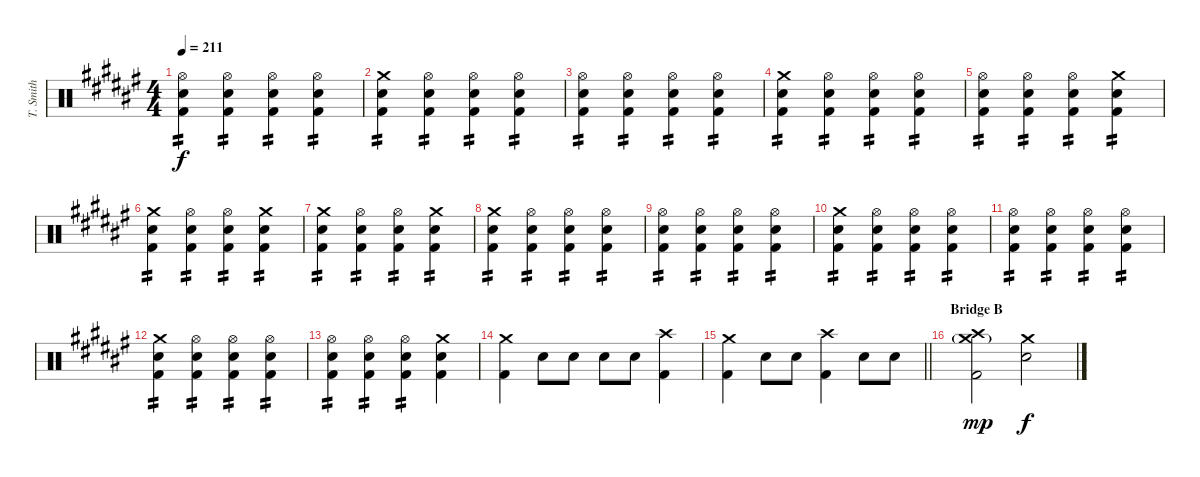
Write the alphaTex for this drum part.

\track ("T. Smith" "T. Smith") {instrument percussion}
\staff {score}
\articulation defaults
\ts (4 4)
\tempo 211
\clef neutral
\ks d#minor
("Hi-Hat (open)" "Electric Snare (hit)" "Kick (hit) 2").4{tp 2 dy f} ("Hi-Hat (open)" "Electric Snare (hit)" "Kick (hit) 2").4{tp 2} ("Hi-Hat (open)" "Electric Snare (hit)" "Kick (hit) 2").4{tp 2} ("Hi-Hat (open)" "Electric Snare (hit)" "Kick (hit) 2").4{tp 2} |
("Crash medium (hit)" "Electric Snare (hit)" "Kick (hit) 2").4{tp 2} ("Hi-Hat (open)" "Electric Snare (hit)" "Kick (hit) 2").4{tp 2} ("Hi-Hat (open)" "Electric Snare (hit)" "Kick (hit) 2").4{tp 2} ("Hi-Hat (open)" "Electric Snare (hit)" "Kick (hit) 2").4{tp 2} |
("Hi-Hat (open)" "Electric Snare (hit)" "Kick (hit) 2").4{tp 2} ("Hi-Hat (open)" "Electric Snare (hit)" "Kick (hit) 2").4{tp 2} ("Hi-Hat (open)" "Electric Snare (hit)" "Kick (hit) 2").4{tp 2} ("Hi-Hat (open)" "Electric Snare (hit)" "Kick (hit) 2").4{tp 2} |
("Crash medium (hit)" "Electric Snare (hit)" "Kick (hit) 2").4{tp 2} ("Hi-Hat (open)" "Electric Snare (hit)" "Kick (hit) 2").4{tp 2} ("Hi-Hat (open)" "Electric Snare (hit)" "Kick (hit) 2").4{tp 2} ("Hi-Hat (open)" "Electric Snare (hit)" "Kick (hit) 2").4{tp 2} |
("Hi-Hat (open)" "Electric Snare (hit)" "Kick (hit) 2").4{tp 2} ("Hi-Hat (open)" "Electric Snare (hit)" "Kick (hit) 2").4{tp 2} ("Hi-Hat (open)" "Electric Snare (hit)" "Kick (hit) 2").4{tp 2} ("Crash medium (hit)" "Electric Snare (hit)" "Kick (hit) 2").4{tp 2} |
("Crash medium (hit)" "Electric Snare (hit)" "Kick (hit) 2").4{tp 2} ("Hi-Hat (open)" "Electric Snare (hit)" "Kick (hit) 2").4{tp 2} ("Hi-Hat (open)" "Electric Snare (hit)" "Kick (hit) 2").4{tp 2} ("Crash medium (hit)" "Electric Snare (hit)" "Kick (hit) 2").4{tp 2} |
("Crash medium (hit)" "Electric Snare (hit)" "Kick (hit) 2").4{tp 2} ("Hi-Hat (open)" "Electric Snare (hit)" "Kick (hit) 2").4{tp 2} ("Hi-Hat (open)" "Electric Snare (hit)" "Kick (hit) 2").4{tp 2} ("Crash medium (hit)" "Electric Snare (hit)" "Kick (hit) 2").4{tp 2} |
("Crash medium (hit)" "Electric Snare (hit)" "Kick (hit) 2").4{tp 2} ("Hi-Hat (open)" "Electric Snare (hit)" "Kick (hit) 2").4{tp 2} ("Hi-Hat (open)" "Electric Snare (hit)" "Kick (hit) 2").4{tp 2} ("Hi-Hat (open)" "Electric Snare (hit)" "Kick (hit) 2").4{tp 2} |
("Hi-Hat (open)" "Electric Snare (hit)" "Kick (hit) 2").4{tp 2} ("Hi-Hat (open)" "Electric Snare (hit)" "Kick (hit) 2").4{tp 2} ("Hi-Hat (open)" "Electric Snare (hit)" "Kick (hit) 2").4{tp 2} ("Hi-Hat (open)" "Electric Snare (hit)" "Kick (hit) 2").4{tp 2} |
("Crash medium (hit)" "Electric Snare (hit)" "Kick (hit) 2").4{tp 2} ("Hi-Hat (open)" "Electric Snare (hit)" "Kick (hit) 2").4{tp 2} ("Hi-Hat (open)" "Electric Snare (hit)" "Kick (hit) 2").4{tp 2} ("Hi-Hat (open)" "Electric Snare (hit)" "Kick (hit) 2").4{tp 2} |
("Hi-Hat (open)" "Electric Snare (hit)" "Kick (hit) 2").4{tp 2} ("Hi-Hat (open)" "Electric Snare (hit)" "Kick (hit) 2").4{tp 2} ("Hi-Hat (open)" "Electric Snare (hit)" "Kick (hit) 2").4{tp 2} ("Hi-Hat (open)" "Electric Snare (hit)" "Kick (hit) 2").4{tp 2} |
("Crash medium (hit)" "Electric Snare (hit)" "Kick (hit) 2").4{tp 2} ("Hi-Hat (open)" "Electric Snare (hit)" "Kick (hit) 2").4{tp 2} ("Hi-Hat (open)" "Electric Snare (hit)" "Kick (hit) 2").4{tp 2} ("Hi-Hat (open)" "Electric Snare (hit)" "Kick (hit) 2").4{tp 2} |
("Hi-Hat (open)" "Electric Snare (hit)" "Kick (hit) 2").4{tp 2} ("Hi-Hat (open)" "Electric Snare (hit)" "Kick (hit) 2").4{tp 2} ("Hi-Hat (open)" "Electric Snare (hit)" "Kick (hit) 2").4{tp 2} ("Crash medium (hit)" "Electric Snare (hit)" "Kick (hit) 2").4 |
("Crash medium (hit)" "Kick (hit) 2").4 "Electric Snare (hit)".8 "Electric Snare (hit)".8 "Electric Snare (hit)".8 "Electric Snare (hit)".8 ("Crash high (hit)" "Kick (hit) 2").4 |
\barLineRight lightlight
("Crash medium (hit)" "Kick (hit) 2").4 "Electric Snare (hit)".8 "Electric Snare (hit)".8 ("Crash high (hit)" "Kick (hit) 2").4 "Electric Snare (hit)".8 "Electric Snare (hit)".8 |
\section ("" "Bridge B")
("Crash medium (hit)"{g} "Crash high (hit)" "Kick (hit) 2").2{dy mp} ("Crash medium (hit)" "Electric Snare (hit)").2{dy f}
